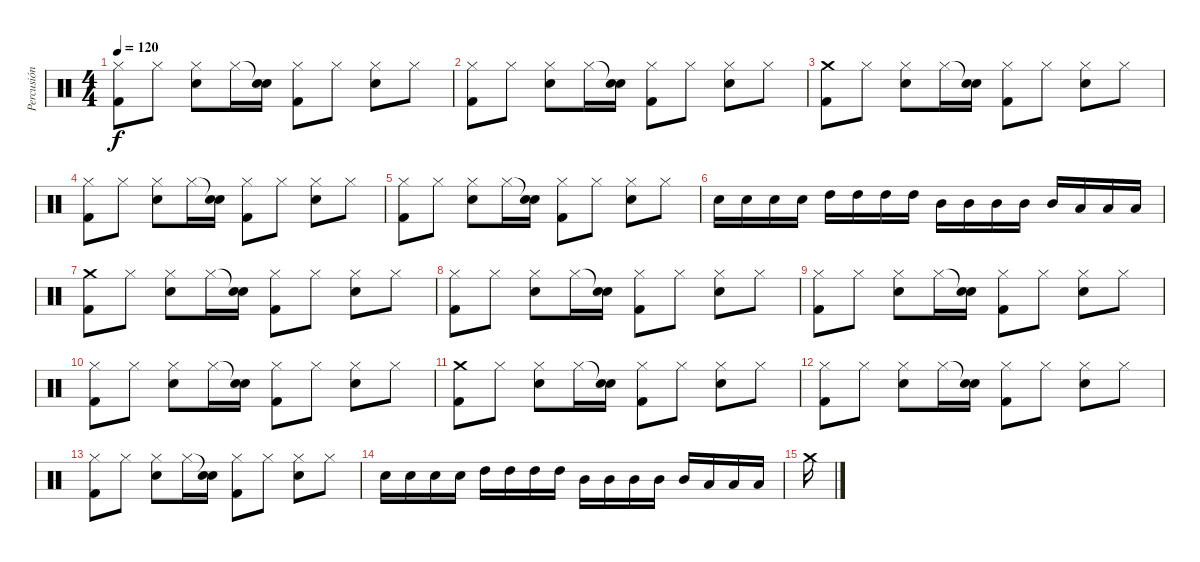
\track ("Percusión" "Percusión") {instrument percussion}
\staff {score}
\articulation defaults
\ts (4 4)
\tempo 120
\clef neutral
\ks c
("Hi-Hat (closed)" "Kick (hit) 2").8{dy f} "Hi-Hat (closed)".8 ("Hi-Hat (closed)" "Electric Snare (hit)").8 "Hi-Hat (closed)".16 ("Snare (hit)"{t} "Electric Snare (hit)").16 ("Hi-Hat (closed)" "Kick (hit) 2").8 "Hi-Hat (closed)".8 ("Hi-Hat (closed)" "Electric Snare (hit)").8 "Hi-Hat (closed)".8 |
("Hi-Hat (closed)" "Kick (hit) 2").8 "Hi-Hat (closed)".8 ("Hi-Hat (closed)" "Electric Snare (hit)").8 "Hi-Hat (closed)".16 ("Snare (hit)"{t} "Electric Snare (hit)").16 ("Hi-Hat (closed)" "Kick (hit) 2").8 "Hi-Hat (closed)".8 ("Hi-Hat (closed)" "Electric Snare (hit)").8 "Hi-Hat (closed)".8 |
("Crash medium (hit)" "Kick (hit) 2").8 "Hi-Hat (closed)".8 ("Hi-Hat (closed)" "Electric Snare (hit)").8 "Hi-Hat (closed)".16 ("Snare (hit)"{t} "Electric Snare (hit)").16 ("Hi-Hat (closed)" "Kick (hit) 2").8 "Hi-Hat (closed)".8 ("Hi-Hat (closed)" "Electric Snare (hit)").8 "Hi-Hat (closed)".8 |
("Hi-Hat (closed)" "Kick (hit) 2").8 "Hi-Hat (closed)".8 ("Hi-Hat (closed)" "Electric Snare (hit)").8 "Hi-Hat (closed)".16 ("Snare (hit)"{t} "Electric Snare (hit)").16 ("Hi-Hat (closed)" "Kick (hit) 2").8 "Hi-Hat (closed)".8 ("Hi-Hat (closed)" "Electric Snare (hit)").8 "Hi-Hat (closed)".8 |
("Hi-Hat (closed)" "Kick (hit) 2").8 "Hi-Hat (closed)".8 ("Hi-Hat (closed)" "Electric Snare (hit)").8 "Hi-Hat (closed)".16 ("Snare (hit)"{t} "Electric Snare (hit)").16 ("Hi-Hat (closed)" "Kick (hit) 2").8 "Hi-Hat (closed)".8 ("Hi-Hat (closed)" "Electric Snare (hit)").8 "Hi-Hat (closed)".8 |
"Electric Snare (hit)".16 "Electric Snare (hit)".16 "Electric Snare (hit)".16 "Electric Snare (hit)".16 "High Tom (hit)".16 "High Tom (hit)".16 "High Tom (hit)".16 "High Tom (hit)".16 "Mid Tom (hit)".16 "Mid Tom (hit)".16 "Mid Tom (hit)".16 "Mid Tom (hit)".16 "Mid Tom (hit)".16 "Low Tom (hit)".16 "Low Tom (hit)".16 "Low Tom (hit)".16 |
("Crash medium (hit)" "Kick (hit) 2").8 "Hi-Hat (closed)".8 ("Hi-Hat (closed)" "Electric Snare (hit)").8 "Hi-Hat (closed)".16 ("Snare (hit)"{t} "Electric Snare (hit)").16 ("Hi-Hat (closed)" "Kick (hit) 2").8 "Hi-Hat (closed)".8 ("Hi-Hat (closed)" "Electric Snare (hit)").8 "Hi-Hat (closed)".8 |
("Hi-Hat (closed)" "Kick (hit) 2").8 "Hi-Hat (closed)".8 ("Hi-Hat (closed)" "Electric Snare (hit)").8 "Hi-Hat (closed)".16 ("Snare (hit)"{t} "Electric Snare (hit)").16 ("Hi-Hat (closed)" "Kick (hit) 2").8 "Hi-Hat (closed)".8 ("Hi-Hat (closed)" "Electric Snare (hit)").8 "Hi-Hat (closed)".8 |
("Hi-Hat (closed)" "Kick (hit) 2").8 "Hi-Hat (closed)".8 ("Hi-Hat (closed)" "Electric Snare (hit)").8 "Hi-Hat (closed)".16 ("Snare (hit)"{t} "Electric Snare (hit)").16 ("Hi-Hat (closed)" "Kick (hit) 2").8 "Hi-Hat (closed)".8 ("Hi-Hat (closed)" "Electric Snare (hit)").8 "Hi-Hat (closed)".8 |
("Hi-Hat (closed)" "Kick (hit) 2").8 "Hi-Hat (closed)".8 ("Hi-Hat (closed)" "Electric Snare (hit)").8 "Hi-Hat (closed)".16 ("Snare (hit)"{t} "Electric Snare (hit)").16 ("Hi-Hat (closed)" "Kick (hit) 2").8 "Hi-Hat (closed)".8 ("Hi-Hat (closed)" "Electric Snare (hit)").8 "Hi-Hat (closed)".8 |
("Crash medium (hit)" "Kick (hit) 2").8 "Hi-Hat (closed)".8 ("Hi-Hat (closed)" "Electric Snare (hit)").8 "Hi-Hat (closed)".16 ("Snare (hit)"{t} "Electric Snare (hit)").16 ("Hi-Hat (closed)" "Kick (hit) 2").8 "Hi-Hat (closed)".8 ("Hi-Hat (closed)" "Electric Snare (hit)").8 "Hi-Hat (closed)".8 |
("Hi-Hat (closed)" "Kick (hit) 2").8 "Hi-Hat (closed)".8 ("Hi-Hat (closed)" "Electric Snare (hit)").8 "Hi-Hat (closed)".16 ("Snare (hit)"{t} "Electric Snare (hit)").16 ("Hi-Hat (closed)" "Kick (hit) 2").8 "Hi-Hat (closed)".8 ("Hi-Hat (closed)" "Electric Snare (hit)").8 "Hi-Hat (closed)".8 |
("Hi-Hat (closed)" "Kick (hit) 2").8 "Hi-Hat (closed)".8 ("Hi-Hat (closed)" "Electric Snare (hit)").8 "Hi-Hat (closed)".16 ("Snare (hit)"{t} "Electric Snare (hit)").16 ("Hi-Hat (closed)" "Kick (hit) 2").8 "Hi-Hat (closed)".8 ("Hi-Hat (closed)" "Electric Snare (hit)").8 "Hi-Hat (closed)".8 |
"Electric Snare (hit)".16 "Electric Snare (hit)".16 "Electric Snare (hit)".16 "Electric Snare (hit)".16 "High Tom (hit)".16 "High Tom (hit)".16 "High Tom (hit)".16 "High Tom (hit)".16 "Mid Tom (hit)".16 "Mid Tom (hit)".16 "Mid Tom (hit)".16 "Mid Tom (hit)".16 "Mid Tom (hit)".16 "Low Tom (hit)".16 "Low Tom (hit)".16 "Low Tom (hit)".16 |
"Crash medium (hit)".16
